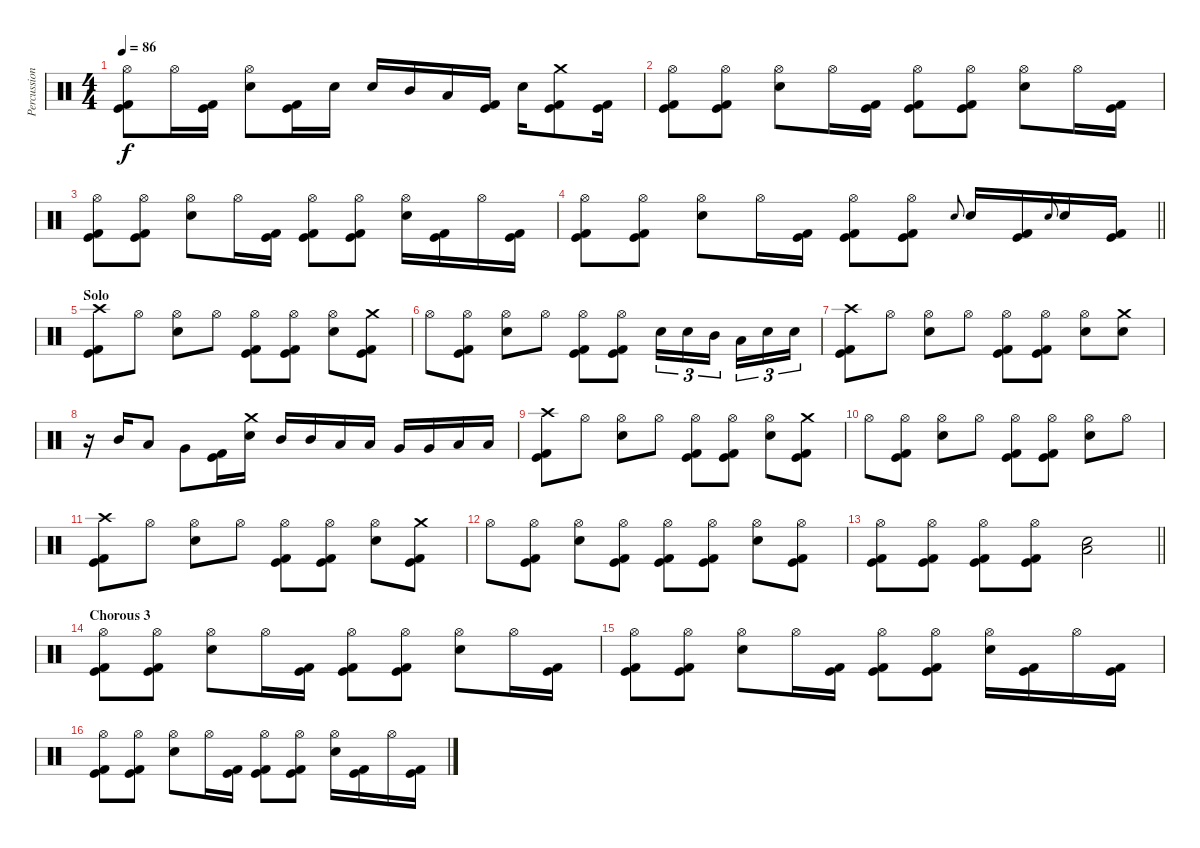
\track ("Percussion" "Percussion") {instrument percussion}
\staff {score}
\articulation defaults
\ts (4 4)
\tempo 86
\clef neutral
\ks c
("Hi-Hat (open)" "Kick (hit)" "Kick (hit) 2").8{dy f} "Hi-Hat (open)".16 ("Kick (hit)" "Kick (hit) 2").16 ("Hi-Hat (open)" "Electric Snare (hit)").8 ("Kick (hit)" "Kick (hit) 2").16 "Electric Snare (hit)".16 "Electric Snare (hit)".16 "Mid Tom (hit)".16 "Low Tom (hit)".16 ("Kick (hit)" "Kick (hit) 2").16 "Electric Snare (hit)".16 ("Crash medium (hit)" "Kick (hit)" "Kick (hit) 2").8 ("Kick (hit)" "Kick (hit) 2").16 |
("Hi-Hat (open)" "Kick (hit)" "Kick (hit) 2").8 ("Hi-Hat (open)" "Kick (hit)" "Kick (hit) 2").8 ("Hi-Hat (open)" "Electric Snare (hit)").8 "Hi-Hat (open)".16 ("Kick (hit)" "Kick (hit) 2").16 ("Hi-Hat (open)" "Kick (hit)" "Kick (hit) 2").8 ("Hi-Hat (open)" "Kick (hit)" "Kick (hit) 2").8 ("Hi-Hat (open)" "Electric Snare (hit)").8 "Hi-Hat (open)".16 ("Kick (hit)" "Kick (hit) 2").16 |
("Hi-Hat (open)" "Kick (hit)" "Kick (hit) 2").8 ("Hi-Hat (open)" "Kick (hit)" "Kick (hit) 2").8 ("Hi-Hat (open)" "Electric Snare (hit)").8 "Hi-Hat (open)".16 ("Kick (hit)" "Kick (hit) 2").16 ("Hi-Hat (open)" "Kick (hit)" "Kick (hit) 2").8 ("Hi-Hat (open)" "Kick (hit)" "Kick (hit) 2").8 ("Hi-Hat (open)" "Electric Snare (hit)").16 ("Kick (hit)" "Kick (hit) 2").16 "Hi-Hat (open)".16 ("Kick (hit)" "Kick (hit) 2").16 |
\barLineRight lightlight
("Hi-Hat (open)" "Kick (hit)" "Kick (hit) 2").8 ("Hi-Hat (open)" "Kick (hit)" "Kick (hit) 2").8 ("Hi-Hat (open)" "Electric Snare (hit)").8 "Hi-Hat (open)".16 ("Kick (hit)" "Kick (hit) 2").16 ("Hi-Hat (open)" "Kick (hit)" "Kick (hit) 2").8 ("Hi-Hat (open)" "Kick (hit)" "Kick (hit) 2").8 "Electric Snare (hit)".8{gr onbeat} "Electric Snare (hit)".16 ("Kick (hit)" "Kick (hit) 2").16 "Electric Snare (hit)".8{gr onbeat} "Electric Snare (hit)".16 ("Kick (hit)" "Kick (hit) 2").16 |
\section ("" "Solo")
("Crash high (hit)" "Kick (hit)" "Kick (hit) 2").8 "Hi-Hat (open)".8 ("Hi-Hat (open)" "Electric Snare (hit)").8 "Hi-Hat (open)".8 ("Hi-Hat (open)" "Kick (hit)" "Kick (hit) 2").8 ("Hi-Hat (open)" "Kick (hit)" "Kick (hit) 2").8 ("Hi-Hat (open)" "Electric Snare (hit)").8 ("Crash medium (hit)" "Kick (hit)" "Kick (hit) 2").8 |
"Hi-Hat (open)".8 ("Hi-Hat (open)" "Kick (hit)" "Kick (hit) 2").8 ("Hi-Hat (open)" "Electric Snare (hit)").8 "Hi-Hat (open)".8 ("Hi-Hat (open)" "Kick (hit)" "Kick (hit) 2").8 ("Hi-Hat (open)" "Kick (hit)" "Kick (hit) 2").8 "Electric Snare (hit)".16{tu (3 2)} "Electric Snare (hit)".16{tu (3 2)} "Mid Tom (hit)".16{tu (3 2) beam splitsecondary} "Low Tom (hit)".16{tu (3 2)} "Electric Snare (hit)".16{tu (3 2)} "Electric Snare (hit)".16{tu (3 2)} |
("Crash high (hit)" "Kick (hit)" "Kick (hit) 2").8 "Hi-Hat (open)".8 ("Hi-Hat (open)" "Electric Snare (hit)").8 "Hi-Hat (open)".8 ("Hi-Hat (open)" "Kick (hit)" "Kick (hit) 2").8 ("Hi-Hat (open)" "Kick (hit)" "Kick (hit) 2").8 ("Hi-Hat (open)" "Electric Snare (hit)").8 ("Crash medium (hit)" "Electric Snare (hit)").8 |
r.16 "Mid Tom (hit)".16 "Low Tom (hit)".8 "Very Low Tom (hit)".8 ("Kick (hit)" "Kick (hit) 2").16 ("Crash medium (hit)" "Electric Snare (hit)").16 "Mid Tom (hit)".16 "Mid Tom (hit)".16 "Low Tom (hit)".16 "Low Tom (hit)".16 "Very Low Tom (hit)".16 "Very Low Tom (hit)".16 "Low Floor Tom (hit)".16 "Low Floor Tom (hit)".16 |
("Crash high (hit)" "Kick (hit)" "Kick (hit) 2").8 "Hi-Hat (open)".8 ("Hi-Hat (open)" "Electric Snare (hit)").8 "Hi-Hat (open)".8 ("Hi-Hat (open)" "Kick (hit)" "Kick (hit) 2").8 ("Hi-Hat (open)" "Kick (hit)" "Kick (hit) 2").8 ("Hi-Hat (open)" "Electric Snare (hit)").8 ("Crash medium (hit)" "Kick (hit)" "Kick (hit) 2").8 |
"Hi-Hat (open)".8 ("Hi-Hat (open)" "Kick (hit)" "Kick (hit) 2").8 ("Hi-Hat (open)" "Electric Snare (hit)").8 "Hi-Hat (open)".8 ("Hi-Hat (open)" "Kick (hit)" "Kick (hit) 2").8 ("Hi-Hat (open)" "Kick (hit)" "Kick (hit) 2").8 ("Hi-Hat (open)" "Electric Snare (hit)").8 "Hi-Hat (open)".8 |
("Crash high (hit)" "Kick (hit)" "Kick (hit) 2").8 "Hi-Hat (open)".8 ("Hi-Hat (open)" "Electric Snare (hit)").8 "Hi-Hat (open)".8 ("Hi-Hat (open)" "Kick (hit)" "Kick (hit) 2").8 ("Hi-Hat (open)" "Kick (hit)" "Kick (hit) 2").8 ("Hi-Hat (open)" "Electric Snare (hit)").8 ("Crash medium (hit)" "Kick (hit)" "Kick (hit) 2").8 |
"Hi-Hat (open)".8 ("Hi-Hat (open)" "Kick (hit)" "Kick (hit) 2").8 ("Hi-Hat (open)" "Electric Snare (hit)").8 ("Hi-Hat (open)" "Kick (hit)" "Kick (hit) 2").8 ("Hi-Hat (open)" "Kick (hit)" "Kick (hit) 2").8 ("Hi-Hat (open)" "Kick (hit)" "Kick (hit) 2").8 ("Hi-Hat (open)" "Electric Snare (hit)").8 ("Hi-Hat (open)" "Kick (hit)" "Kick (hit) 2").8 |
\barLineRight lightlight
("Hi-Hat (open)" "Kick (hit)" "Kick (hit) 2").8 ("Hi-Hat (open)" "Kick (hit)" "Kick (hit) 2").8 ("Hi-Hat (open)" "Kick (hit)" "Kick (hit) 2").8 ("Hi-Hat (open)" "Kick (hit)" "Kick (hit) 2").8 ("Electric Snare (hit)" "Low Floor Tom (hit)").2 |
\section ("" "Chorous 3")
("Hi-Hat (open)" "Kick (hit)" "Kick (hit) 2").8 ("Hi-Hat (open)" "Kick (hit)" "Kick (hit) 2").8 ("Hi-Hat (open)" "Electric Snare (hit)").8 "Hi-Hat (open)".16 ("Kick (hit)" "Kick (hit) 2").16 ("Hi-Hat (open)" "Kick (hit)" "Kick (hit) 2").8 ("Hi-Hat (open)" "Kick (hit)" "Kick (hit) 2").8 ("Hi-Hat (open)" "Electric Snare (hit)").8 "Hi-Hat (open)".16 ("Kick (hit)" "Kick (hit) 2").16 |
("Hi-Hat (open)" "Kick (hit)" "Kick (hit) 2").8 ("Hi-Hat (open)" "Kick (hit)" "Kick (hit) 2").8 ("Hi-Hat (open)" "Electric Snare (hit)").8 "Hi-Hat (open)".16 ("Kick (hit)" "Kick (hit) 2").16 ("Hi-Hat (open)" "Kick (hit)" "Kick (hit) 2").8 ("Hi-Hat (open)" "Kick (hit)" "Kick (hit) 2").8 ("Hi-Hat (open)" "Electric Snare (hit)").16 ("Kick (hit)" "Kick (hit) 2").16 "Hi-Hat (open)".16 ("Kick (hit)" "Kick (hit) 2").16 |
("Hi-Hat (open)" "Kick (hit)" "Kick (hit) 2").8 ("Hi-Hat (open)" "Kick (hit)" "Kick (hit) 2").8 ("Hi-Hat (open)" "Electric Snare (hit)").8 "Hi-Hat (open)".16 ("Kick (hit)" "Kick (hit) 2").16 ("Hi-Hat (open)" "Kick (hit)" "Kick (hit) 2").8 ("Hi-Hat (open)" "Kick (hit)" "Kick (hit) 2").8 ("Hi-Hat (open)" "Electric Snare (hit)").16 ("Kick (hit)" "Kick (hit) 2").16 "Hi-Hat (open)".16 ("Kick (hit)" "Kick (hit) 2").16
